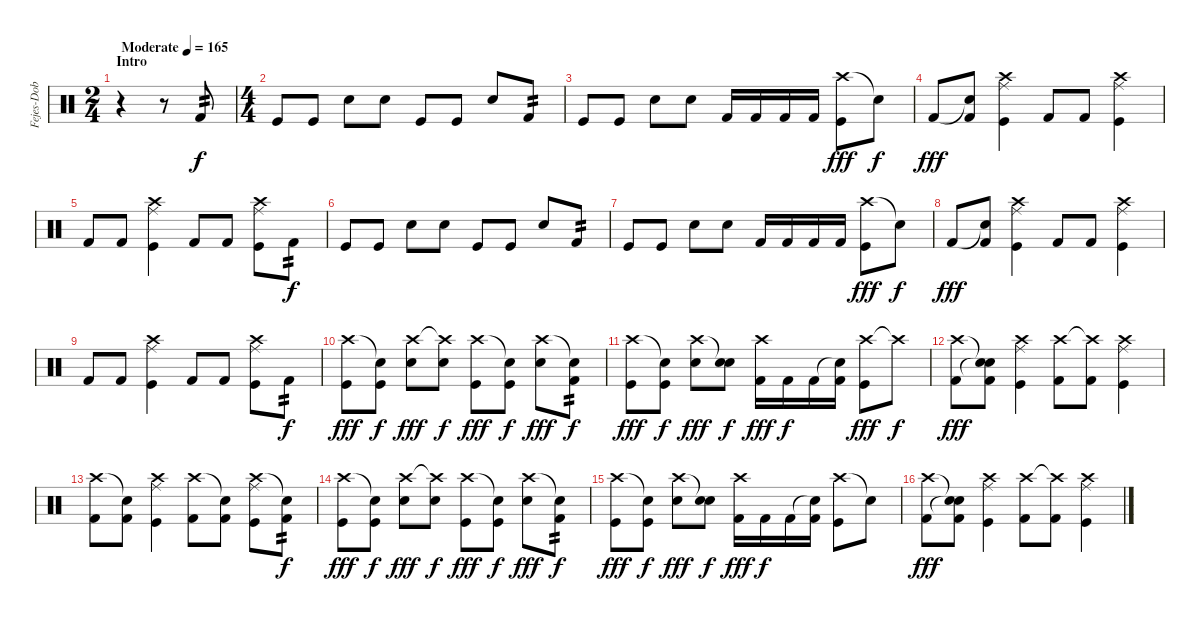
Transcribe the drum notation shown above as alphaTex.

\track ("Fejes-Dob" "Fejes-Dob") {instrument percussion}
\staff {score}
\articulation defaults
\ts (2 4)
\section ("" "Intro")
\tempo (165 "Moderate")
\clef neutral
\ks c
r.4{dy f} r.8 "Kick (hit) 2".8{tp 2} |
\ts (4 4)
"Kick (hit)".8 "Kick (hit)".8 "Electric Snare (hit)".8 "Electric Snare (hit)".8 "Kick (hit)".8 "Kick (hit)".8 "Electric Snare (hit)".8 "Kick (hit) 2".8{tp 2} |
"Kick (hit)".8 "Kick (hit)".8 "Electric Snare (hit)".8 "Electric Snare (hit)".8 "Kick (hit) 2".16 "Kick (hit) 2".16 "Kick (hit) 2".16 "Kick (hit) 2".16 ("Crash high (hit)" "Kick (hit)").8{dy fff} "Snare (hit)"{t}.8{dy f} |
"Kick (hit) 2".8{dy fff} ("Snare (hit)"{t} "Kick (hit) 2").8 ("Crash high (hit)" "Ride (middle)" "Kick (hit)").4 "Kick (hit) 2".8 "Kick (hit) 2".8 ("Crash high (hit)" "Ride (middle)" "Kick (hit)").4 |
"Kick (hit) 2".8 "Kick (hit) 2".8 ("Crash high (hit)" "Ride (middle)" "Kick (hit)").4 "Kick (hit) 2".8 "Kick (hit) 2".8 ("Crash high (hit)" "Ride (middle)" "Kick (hit)").8 "Kick (hit) 2".8{tp 2 dy f} |
"Kick (hit)".8 "Kick (hit)".8 "Electric Snare (hit)".8 "Electric Snare (hit)".8 "Kick (hit)".8 "Kick (hit)".8 "Electric Snare (hit)".8 "Kick (hit) 2".8{tp 2} |
"Kick (hit)".8 "Kick (hit)".8 "Electric Snare (hit)".8 "Electric Snare (hit)".8 "Kick (hit) 2".16 "Kick (hit) 2".16 "Kick (hit) 2".16 "Kick (hit) 2".16 ("Crash high (hit)" "Kick (hit)").8{dy fff} "Snare (hit)"{t}.8{dy f} |
"Kick (hit) 2".8{dy fff} ("Snare (hit)"{t} "Kick (hit) 2").8 ("Crash high (hit)" "Ride (middle)" "Kick (hit)").4 "Kick (hit) 2".8 "Kick (hit) 2".8 ("Crash high (hit)" "Ride (middle)" "Kick (hit)").4 |
"Kick (hit) 2".8 "Kick (hit) 2".8 ("Crash high (hit)" "Ride (middle)" "Kick (hit)").4 "Kick (hit) 2".8 "Kick (hit) 2".8 ("Crash high (hit)" "Ride (middle)" "Kick (hit)").8 "Kick (hit) 2".8{tp 2 dy f} |
("Crash high (hit)" "Kick (hit)").8{dy fff} ("Snare (hit)"{t} "Kick (hit)").8{dy f} ("Crash high (hit)" "Electric Snare (hit)").8{dy fff} ("Crash high (hit)"{t} "Electric Snare (hit)").8{dy f} ("Crash high (hit)" "Kick (hit)").8{dy fff} ("Snare (hit)"{t} "Kick (hit)").8{dy f} ("Crash high (hit)" "Electric Snare (hit)").8{dy fff} ("Snare (hit)"{t} "Kick (hit) 2").8{tp 2 dy f} |
("Crash high (hit)" "Kick (hit)").8{dy fff} ("Snare (hit)"{t} "Kick (hit)").8{dy f} ("Crash high (hit)" "Electric Snare (hit)").8{dy fff} ("Snare (hit)"{t} "Electric Snare (hit)").8{dy f} ("Crash high (hit)" "Kick (hit) 2").16{dy fff} "Kick (hit) 2".16{dy f} "Kick (hit) 2".16 ("Snare (hit)"{t} "Kick (hit) 2").16 ("Crash high (hit)" "Kick (hit)").8{dy fff} "Crash high (hit)"{t}.8{dy f} |
("Crash high (hit)" "Kick (hit) 2").8{dy fff} ("Snare (hit)"{t} "Snare (hit)"{t} "Kick (hit) 2").8 ("Crash high (hit)" "Ride (middle)" "Kick (hit)").4 ("Crash high (hit)" "Kick (hit) 2").8 ("Crash high (hit)"{t} "Kick (hit) 2").8 ("Crash high (hit)" "Ride (middle)" "Kick (hit)").4 |
("Crash high (hit)" "Kick (hit) 2").8 ("Snare (hit)"{t} "Kick (hit) 2").8 ("Crash high (hit)" "Ride (middle)" "Kick (hit)").4 ("Crash high (hit)" "Kick (hit) 2").8 ("Snare (hit)"{t} "Kick (hit) 2").8 ("Crash high (hit)" "Ride (middle)" "Kick (hit)").8 ("Snare (hit)"{t} "Kick (hit) 2").8{tp 2 dy f} |
("Crash high (hit)" "Kick (hit)").8{dy fff} ("Snare (hit)"{t} "Kick (hit)").8{dy f} ("Crash high (hit)" "Electric Snare (hit)").8{dy fff} ("Crash high (hit)"{t} "Electric Snare (hit)").8{dy f} ("Crash high (hit)" "Kick (hit)").8{dy fff} ("Snare (hit)"{t} "Kick (hit)").8{dy f} ("Crash high (hit)" "Electric Snare (hit)").8{dy fff} ("Snare (hit)"{t} "Kick (hit) 2").8{tp 2 dy f} |
("Crash high (hit)" "Kick (hit)").8{dy fff} ("Snare (hit)"{t} "Kick (hit)").8{dy f} ("Crash high (hit)" "Electric Snare (hit)").8{dy fff} ("Snare (hit)"{t} "Electric Snare (hit)").8{dy f} ("Crash high (hit)" "Kick (hit) 2").16{dy fff} "Kick (hit) 2".16{dy f} "Kick (hit) 2".16 ("Snare (hit)"{t} "Kick (hit) 2").16 ("Crash high (hit)" "Kick (hit)").8 "Snare (hit)"{t}.8 |
("Crash high (hit)" "Kick (hit) 2").8{dy fff} ("Snare (hit)"{t} "Snare (hit)"{t} "Kick (hit) 2").8 ("Crash high (hit)" "Ride (middle)" "Kick (hit)").4 ("Crash high (hit)" "Kick (hit) 2").8 ("Crash high (hit)"{t} "Kick (hit) 2").8 ("Crash high (hit)" "Ride (middle)" "Kick (hit)").4
